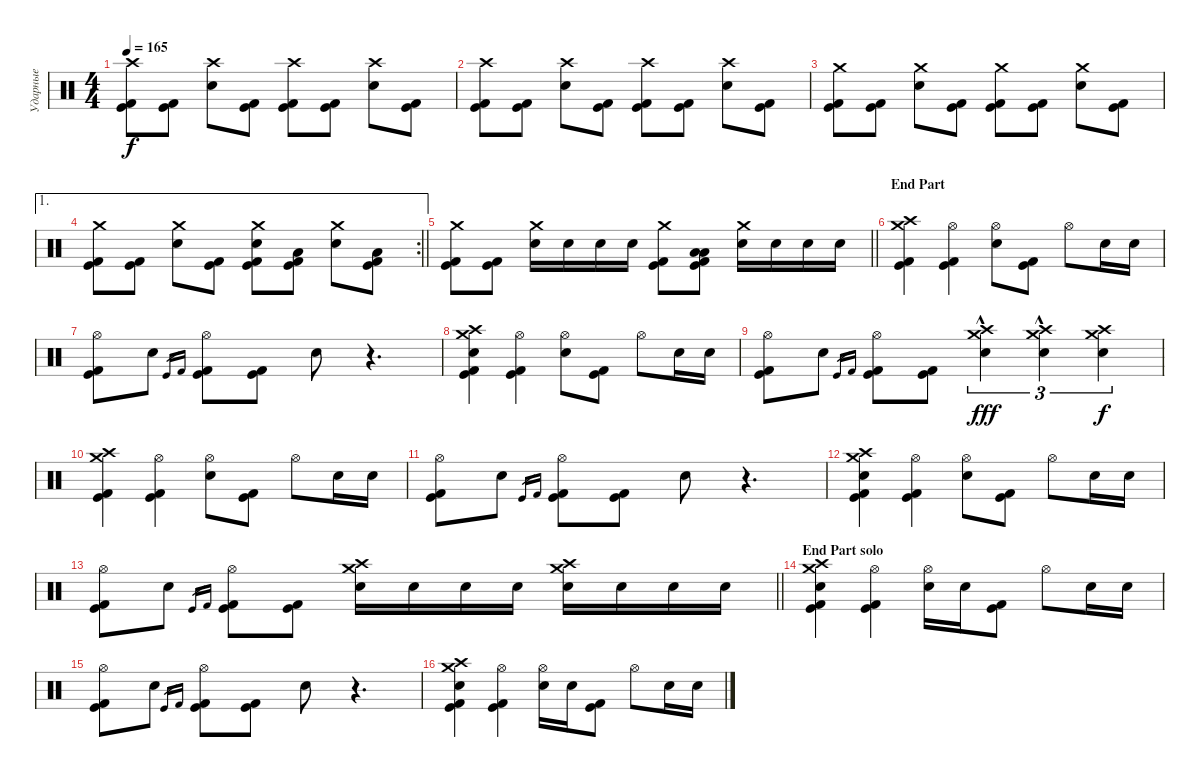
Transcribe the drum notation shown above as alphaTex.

\track ("Ударные" "Ударные") {instrument percussion}
\staff {score}
\articulation defaults
\ts (4 4)
\tempo 165
\clef neutral
\ks c
("Crash high (hit)" "Kick (hit)" "Kick (hit) 2").8{dy f} ("Kick (hit)" "Kick (hit) 2").8 ("Crash high (hit)" "Electric Snare (hit)").8 ("Kick (hit)" "Kick (hit) 2").8 ("Crash high (hit)" "Kick (hit)" "Kick (hit) 2").8 ("Kick (hit)" "Kick (hit) 2").8 ("Crash high (hit)" "Electric Snare (hit)").8 ("Kick (hit)" "Kick (hit) 2").8 |
("Crash high (hit)" "Kick (hit)" "Kick (hit) 2").8 ("Kick (hit)" "Kick (hit) 2").8 ("Crash high (hit)" "Electric Snare (hit)").8 ("Kick (hit)" "Kick (hit) 2").8 ("Crash high (hit)" "Kick (hit)" "Kick (hit) 2").8 ("Kick (hit)" "Kick (hit) 2").8 ("Crash high (hit)" "Electric Snare (hit)").8 ("Kick (hit)" "Kick (hit) 2").8 |
("Crash medium (hit)" "Kick (hit)" "Kick (hit) 2").8 ("Kick (hit)" "Kick (hit) 2").8 ("Crash medium (hit)" "Electric Snare (hit)").8 ("Kick (hit)" "Kick (hit) 2").8 ("Crash medium (hit)" "Kick (hit)" "Kick (hit) 2").8 ("Kick (hit)" "Kick (hit) 2").8 ("Crash medium (hit)" "Electric Snare (hit)").8 ("Kick (hit)" "Kick (hit) 2").8 |
\ae 1
\rc 2
\barLineRight lightlight
("Crash medium (hit)" "Kick (hit)" "Kick (hit) 2").8 ("Kick (hit)" "Kick (hit) 2").8 ("Crash medium (hit)" "Electric Snare (hit)").8 ("Kick (hit)" "Kick (hit) 2").8 ("Crash medium (hit)" "Electric Snare (hit)" "Kick (hit)" "Kick (hit) 2").8 ("Low Floor Tom (hit)" "Kick (hit)" "Kick (hit) 2").8 ("Crash medium (hit)" "Electric Snare (hit)").8 ("Low Floor Tom (hit)" "Kick (hit)" "Kick (hit) 2").8 |
\barLineRight lightlight
("Crash medium (hit)" "Kick (hit)" "Kick (hit) 2").8 ("Kick (hit)" "Kick (hit) 2").8 ("Crash medium (hit)" "Electric Snare (hit)").16 "Electric Snare (hit)".16 "Electric Snare (hit)".16 "Electric Snare (hit)".16 ("Crash medium (hit)" "Kick (hit)" "Kick (hit) 2").8 ("Low Tom (hit)" "Low Floor Tom (hit)" "Kick (hit)" "Kick (hit) 2").8 ("Crash medium (hit)" "Electric Snare (hit)").16 "Electric Snare (hit)".16 "Electric Snare (hit)".16 "Electric Snare (hit)".16 |
\section ("" "End Part")
("Crash high (hit)" "Crash medium (hit)" "Kick (hit)" "Kick (hit) 2").4 ("Hi-Hat (open)" "Kick (hit)" "Kick (hit) 2").4 ("Hi-Hat (open)" "Electric Snare (hit)").8 ("Kick (hit)" "Kick (hit) 2").8 "Hi-Hat (open)".8 "Electric Snare (hit)".16 "Electric Snare (hit)".16 |
("Hi-Hat (open)" "Kick (hit)" "Kick (hit) 2").8 "Electric Snare (hit)".8 "Kick (hit)".16{gr} "Kick (hit) 2".16{gr} ("Hi-Hat (open)" "Kick (hit)" "Kick (hit) 2").8 ("Kick (hit)" "Kick (hit) 2").8 "Electric Snare (hit)".8 r.4{d} |
("Crash high (hit)" "Crash medium (hit)" "Electric Snare (hit)" "Kick (hit)" "Kick (hit) 2").4 ("Hi-Hat (open)" "Kick (hit)" "Kick (hit) 2").4 ("Hi-Hat (open)" "Electric Snare (hit)").8 ("Kick (hit)" "Kick (hit) 2").8 "Hi-Hat (open)".8 "Electric Snare (hit)".16 "Electric Snare (hit)".16 |
("Hi-Hat (open)" "Kick (hit)" "Kick (hit) 2").8 "Electric Snare (hit)".8 "Kick (hit)".16{gr} "Kick (hit) 2".16{gr} ("Hi-Hat (open)" "Kick (hit)" "Kick (hit) 2").8 ("Kick (hit)" "Kick (hit) 2").8 ("Crash high (hit)" "Crash medium (hit)" "Electric Snare (hit)"{hac}).4{tu (3 2) dy fff} ("Crash high (hit)" "Crash medium (hit)" "Electric Snare (hit)"{hac}).4{tu (3 2)} ("Crash high (hit)" "Crash medium (hit)" "Electric Snare (hit)").4{tu (3 2) dy f} |
("Crash high (hit)" "Crash medium (hit)" "Kick (hit)" "Kick (hit) 2").4 ("Hi-Hat (open)" "Kick (hit)" "Kick (hit) 2").4 ("Hi-Hat (open)" "Electric Snare (hit)").8 ("Kick (hit)" "Kick (hit) 2").8 "Hi-Hat (open)".8 "Electric Snare (hit)".16 "Electric Snare (hit)".16 |
("Hi-Hat (open)" "Kick (hit)" "Kick (hit) 2").8 "Electric Snare (hit)".8 "Kick (hit)".16{gr} "Kick (hit) 2".16{gr} ("Hi-Hat (open)" "Kick (hit)" "Kick (hit) 2").8 ("Kick (hit)" "Kick (hit) 2").8 "Electric Snare (hit)".8 r.4{d} |
("Crash high (hit)" "Crash medium (hit)" "Electric Snare (hit)" "Kick (hit)" "Kick (hit) 2").4 ("Hi-Hat (open)" "Kick (hit)" "Kick (hit) 2").4 ("Hi-Hat (open)" "Electric Snare (hit)").8 ("Kick (hit)" "Kick (hit) 2").8 "Hi-Hat (open)".8 "Electric Snare (hit)".16 "Electric Snare (hit)".16 |
\barLineRight lightlight
("Hi-Hat (open)" "Kick (hit)" "Kick (hit) 2").8 "Electric Snare (hit)".8 "Kick (hit)".16{gr} "Kick (hit) 2".16{gr} ("Hi-Hat (open)" "Kick (hit)" "Kick (hit) 2").8 ("Kick (hit)" "Kick (hit) 2").8 ("Crash high (hit)" "Crash medium (hit)" "Electric Snare (hit)").16 "Electric Snare (hit)".16 "Electric Snare (hit)".16 "Electric Snare (hit)".16 ("Crash high (hit)" "Crash medium (hit)" "Electric Snare (hit)").16 "Electric Snare (hit)".16 "Electric Snare (hit)".16 "Electric Snare (hit)".16 |
\section ("" "End Part solo")
("Crash high (hit)" "Crash medium (hit)" "Electric Snare (hit)" "Kick (hit)" "Kick (hit) 2").4 ("Hi-Hat (open)" "Kick (hit)" "Kick (hit) 2").4 ("Hi-Hat (open)" "Electric Snare (hit)").16 "Electric Snare (hit)".16 ("Kick (hit)" "Kick (hit) 2").8 "Hi-Hat (open)".8 "Electric Snare (hit)".16 "Electric Snare (hit)".16 |
("Hi-Hat (open)" "Kick (hit)" "Kick (hit) 2").8 "Electric Snare (hit)".8 "Kick (hit)".16{gr} "Kick (hit) 2".16{gr} ("Hi-Hat (open)" "Kick (hit)" "Kick (hit) 2").8 ("Kick (hit)" "Kick (hit) 2").8 "Electric Snare (hit)".8 r.4{d} |
("Crash high (hit)" "Crash medium (hit)" "Electric Snare (hit)" "Kick (hit)" "Kick (hit) 2").4 ("Hi-Hat (open)" "Kick (hit)" "Kick (hit) 2").4 ("Hi-Hat (open)" "Electric Snare (hit)").16 "Electric Snare (hit)".16 ("Kick (hit)" "Kick (hit) 2").8 "Hi-Hat (open)".8 "Electric Snare (hit)".16 "Electric Snare (hit)".16
